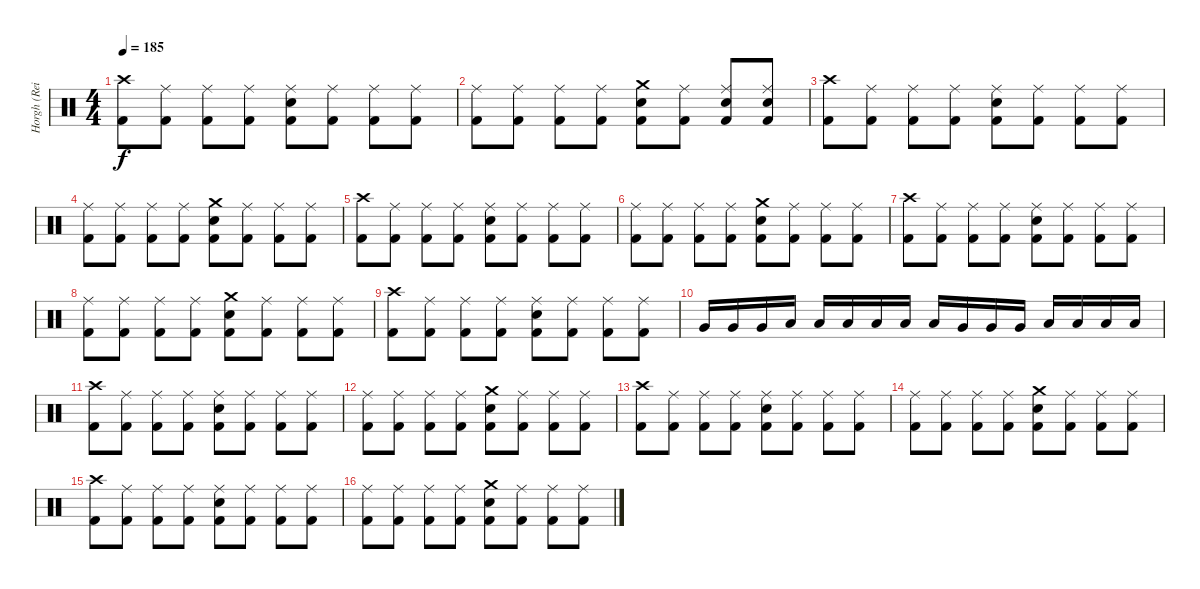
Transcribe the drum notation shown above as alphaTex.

\track ("Horgh (Reidar Horghagen)" "Horgh (Rei") {instrument percussion}
\staff {score}
\articulation defaults
\ts (4 4)
\tempo 185
\clef neutral
\ks c
("Crash high (hit)" "Kick (hit) 2").8{dy f} ("Ride (middle)" "Kick (hit) 2").8 ("Ride (middle)" "Kick (hit) 2").8 ("Ride (middle)" "Kick (hit) 2").8 ("Ride (middle)" "Snare (hit) 2" "Kick (hit) 2").8 ("Ride (middle)" "Kick (hit) 2").8 ("Ride (middle)" "Kick (hit) 2").8 ("Ride (middle)" "Kick (hit) 2").8 |
("Ride (middle)" "Kick (hit) 2").8 ("Ride (middle)" "Kick (hit) 2").8 ("Ride (middle)" "Kick (hit) 2").8 ("Ride (middle)" "Kick (hit) 2").8 ("Crash medium (hit)" "Snare (hit) 2" "Kick (hit) 2").8 ("Ride (middle)" "Kick (hit) 2").8 ("Ride (middle)" "Snare (hit) 2" "Kick (hit) 2").8 ("Ride (middle)" "Snare (hit) 2" "Kick (hit) 2").8 |
("Crash high (hit)" "Kick (hit) 2").8 ("Ride (middle)" "Kick (hit) 2").8 ("Ride (middle)" "Kick (hit) 2").8 ("Ride (middle)" "Kick (hit) 2").8 ("Ride (middle)" "Snare (hit) 2" "Kick (hit) 2").8 ("Ride (middle)" "Kick (hit) 2").8 ("Ride (middle)" "Kick (hit) 2").8 ("Ride (middle)" "Kick (hit) 2").8 |
("Ride (middle)" "Kick (hit) 2").8 ("Ride (middle)" "Kick (hit) 2").8 ("Ride (middle)" "Kick (hit) 2").8 ("Ride (middle)" "Kick (hit) 2").8 ("Crash medium (hit)" "Snare (hit) 2" "Kick (hit) 2").8 ("Ride (middle)" "Kick (hit) 2").8 ("Ride (middle)" "Kick (hit) 2").8 ("Ride (middle)" "Kick (hit) 2").8 |
("Crash high (hit)" "Kick (hit) 2").8 ("Ride (middle)" "Kick (hit) 2").8 ("Ride (middle)" "Kick (hit) 2").8 ("Ride (middle)" "Kick (hit) 2").8 ("Ride (middle)" "Snare (hit) 2" "Kick (hit) 2").8 ("Ride (middle)" "Kick (hit) 2").8 ("Ride (middle)" "Kick (hit) 2").8 ("Ride (middle)" "Kick (hit) 2").8 |
("Ride (middle)" "Kick (hit) 2").8 ("Ride (middle)" "Kick (hit) 2").8 ("Ride (middle)" "Kick (hit) 2").8 ("Ride (middle)" "Kick (hit) 2").8 ("Crash medium (hit)" "Snare (hit) 2" "Kick (hit) 2").8 ("Ride (middle)" "Kick (hit) 2").8 ("Ride (middle)" "Kick (hit) 2").8 ("Ride (middle)" "Kick (hit) 2").8 |
("Crash high (hit)" "Kick (hit) 2").8 ("Ride (middle)" "Kick (hit) 2").8 ("Ride (middle)" "Kick (hit) 2").8 ("Ride (middle)" "Kick (hit) 2").8 ("Ride (middle)" "Snare (hit) 2" "Kick (hit) 2").8 ("Ride (middle)" "Kick (hit) 2").8 ("Ride (middle)" "Kick (hit) 2").8 ("Ride (middle)" "Kick (hit) 2").8 |
("Ride (middle)" "Kick (hit) 2").8 ("Ride (middle)" "Kick (hit) 2").8 ("Ride (middle)" "Kick (hit) 2").8 ("Ride (middle)" "Kick (hit) 2").8 ("Crash medium (hit)" "Snare (hit) 2" "Kick (hit) 2").8 ("Ride (middle)" "Kick (hit) 2").8 ("Ride (middle)" "Kick (hit) 2").8 ("Ride (middle)" "Kick (hit) 2").8 |
("Crash high (hit)" "Kick (hit) 2").8 ("Ride (middle)" "Kick (hit) 2").8 ("Ride (middle)" "Kick (hit) 2").8 ("Ride (middle)" "Kick (hit) 2").8 ("Ride (middle)" "Snare (hit) 2" "Kick (hit) 2").8 ("Ride (middle)" "Kick (hit) 2").8 ("Ride (middle)" "Kick (hit) 2").8 ("Ride (middle)" "Kick (hit) 2").8 |
"Very Low Tom (hit)".16 "Very Low Tom (hit)".16 "Very Low Tom (hit)".16 "Low Tom (hit)".16 "Low Tom (hit)".16 "Low Tom (hit)".16 "Low Floor Tom (hit)".16 "Low Floor Tom (hit)".16 "Low Floor Tom (hit)".16 "Very Low Tom (hit)".16 "Very Low Tom (hit)".16 "Very Low Tom (hit)".16 "Low Floor Tom (hit)".16 "Low Floor Tom (hit)".16 "Low Floor Tom (hit)".16 "Low Floor Tom (hit)".16 |
("Crash high (hit)" "Kick (hit) 2").8 ("Ride (middle)" "Kick (hit) 2").8 ("Ride (middle)" "Kick (hit) 2").8 ("Ride (middle)" "Kick (hit) 2").8 ("Ride (middle)" "Snare (hit) 2" "Kick (hit) 2").8 ("Ride (middle)" "Kick (hit) 2").8 ("Ride (middle)" "Kick (hit) 2").8 ("Ride (middle)" "Kick (hit) 2").8 |
("Ride (middle)" "Kick (hit) 2").8 ("Ride (middle)" "Kick (hit) 2").8 ("Ride (middle)" "Kick (hit) 2").8 ("Ride (middle)" "Kick (hit) 2").8 ("Crash medium (hit)" "Snare (hit) 2" "Kick (hit) 2").8 ("Ride (middle)" "Kick (hit) 2").8 ("Ride (middle)" "Kick (hit) 2").8 ("Ride (middle)" "Kick (hit) 2").8 |
("Crash high (hit)" "Kick (hit) 2").8 ("Ride (middle)" "Kick (hit) 2").8 ("Ride (middle)" "Kick (hit) 2").8 ("Ride (middle)" "Kick (hit) 2").8 ("Ride (middle)" "Snare (hit) 2" "Kick (hit) 2").8 ("Ride (middle)" "Kick (hit) 2").8 ("Ride (middle)" "Kick (hit) 2").8 ("Ride (middle)" "Kick (hit) 2").8 |
("Ride (middle)" "Kick (hit) 2").8 ("Ride (middle)" "Kick (hit) 2").8 ("Ride (middle)" "Kick (hit) 2").8 ("Ride (middle)" "Kick (hit) 2").8 ("Crash medium (hit)" "Snare (hit) 2" "Kick (hit) 2").8 ("Ride (middle)" "Kick (hit) 2").8 ("Ride (middle)" "Kick (hit) 2").8 ("Ride (middle)" "Kick (hit) 2").8 |
("Crash high (hit)" "Kick (hit) 2").8 ("Ride (middle)" "Kick (hit) 2").8 ("Ride (middle)" "Kick (hit) 2").8 ("Ride (middle)" "Kick (hit) 2").8 ("Ride (middle)" "Snare (hit) 2" "Kick (hit) 2").8 ("Ride (middle)" "Kick (hit) 2").8 ("Ride (middle)" "Kick (hit) 2").8 ("Ride (middle)" "Kick (hit) 2").8 |
("Ride (middle)" "Kick (hit) 2").8 ("Ride (middle)" "Kick (hit) 2").8 ("Ride (middle)" "Kick (hit) 2").8 ("Ride (middle)" "Kick (hit) 2").8 ("Crash medium (hit)" "Snare (hit) 2" "Kick (hit) 2").8 ("Ride (middle)" "Kick (hit) 2").8 ("Ride (middle)" "Kick (hit) 2").8 ("Ride (middle)" "Kick (hit) 2").8
